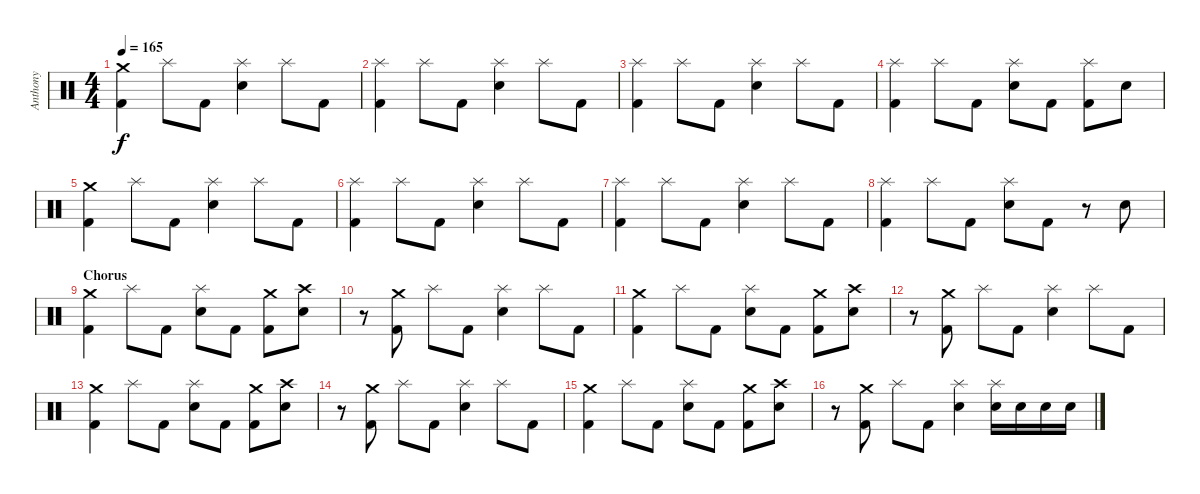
\track ("Anthony" "Anthony") {instrument percussion}
\staff {score}
\articulation defaults
\ts (4 4)
\tempo 165
\clef neutral
\ks c
("Crash medium (hit)" "Kick (hit) 2").4{dy f} "Splash (hit)".8 "Kick (hit) 2".8 ("Splash (hit)" "Electric Snare (hit)").4 "Splash (hit)".8 "Kick (hit) 2".8 |
("Splash (hit)" "Kick (hit) 2").4 "Splash (hit)".8 "Kick (hit) 2".8 ("Splash (hit)" "Electric Snare (hit)").4 "Splash (hit)".8 "Kick (hit) 2".8 |
("Splash (hit)" "Kick (hit) 2").4 "Splash (hit)".8 "Kick (hit) 2".8 ("Splash (hit)" "Electric Snare (hit)").4 "Splash (hit)".8 "Kick (hit) 2".8 |
("Splash (hit)" "Kick (hit) 2").4 "Splash (hit)".8 "Kick (hit) 2".8 ("Splash (hit)" "Electric Snare (hit)").8 "Kick (hit) 2".8 ("Splash (hit)" "Kick (hit) 2").8 "Electric Snare (hit)".8 |
("Crash medium (hit)" "Kick (hit) 2").4 "Splash (hit)".8 "Kick (hit) 2".8 ("Splash (hit)" "Electric Snare (hit)").4 "Splash (hit)".8 "Kick (hit) 2".8 |
("Splash (hit)" "Kick (hit) 2").4 "Splash (hit)".8 "Kick (hit) 2".8 ("Splash (hit)" "Electric Snare (hit)").4 "Splash (hit)".8 "Kick (hit) 2".8 |
("Splash (hit)" "Kick (hit) 2").4 "Splash (hit)".8 "Kick (hit) 2".8 ("Splash (hit)" "Electric Snare (hit)").4 "Splash (hit)".8 "Kick (hit) 2".8 |
("Splash (hit)" "Kick (hit) 2").4 "Splash (hit)".8 "Kick (hit) 2".8 ("Splash (hit)" "Electric Snare (hit)").8 "Kick (hit) 2".8 r.8 "Electric Snare (hit)".8 |
\section ("" "Chorus")
("Crash medium (hit)" "Kick (hit) 2").4 "Splash (hit)".8 "Kick (hit) 2".8 ("Splash (hit)" "Electric Snare (hit)").8 "Kick (hit) 2".8 ("Crash medium (hit)" "Kick (hit) 2").8 ("Crash high (hit)" "Electric Snare (hit)").8 |
r.8 ("Crash medium (hit)" "Kick (hit) 2").8 "Splash (hit)".8 "Kick (hit) 2".8 ("Splash (hit)" "Electric Snare (hit)").4 "Splash (hit)".8 "Kick (hit) 2".8 |
("Crash medium (hit)" "Kick (hit) 2").4 "Splash (hit)".8 "Kick (hit) 2".8 ("Splash (hit)" "Electric Snare (hit)").8 "Kick (hit) 2".8 ("Crash medium (hit)" "Kick (hit) 2").8 ("Crash high (hit)" "Electric Snare (hit)").8 |
r.8 ("Crash medium (hit)" "Kick (hit) 2").8 "Splash (hit)".8 "Kick (hit) 2".8 ("Splash (hit)" "Electric Snare (hit)").4 "Splash (hit)".8 "Kick (hit) 2".8 |
("Crash medium (hit)" "Kick (hit) 2").4 "Splash (hit)".8 "Kick (hit) 2".8 ("Splash (hit)" "Electric Snare (hit)").8 "Kick (hit) 2".8 ("Crash medium (hit)" "Kick (hit) 2").8 ("Crash high (hit)" "Electric Snare (hit)").8 |
r.8 ("Crash medium (hit)" "Kick (hit) 2").8 "Splash (hit)".8 "Kick (hit) 2".8 ("Splash (hit)" "Electric Snare (hit)").4 "Splash (hit)".8 "Kick (hit) 2".8 |
("Crash medium (hit)" "Kick (hit) 2").4 "Splash (hit)".8 "Kick (hit) 2".8 ("Splash (hit)" "Electric Snare (hit)").8 "Kick (hit) 2".8 ("Crash medium (hit)" "Kick (hit) 2").8 ("Crash high (hit)" "Electric Snare (hit)").8 |
r.8 ("Crash medium (hit)" "Kick (hit) 2").8 "Splash (hit)".8 "Kick (hit) 2".8 ("Splash (hit)" "Electric Snare (hit)").4 ("Splash (hit)" "Electric Snare (hit)").16 "Electric Snare (hit)".16 "Electric Snare (hit)".16 "Electric Snare (hit)".16
